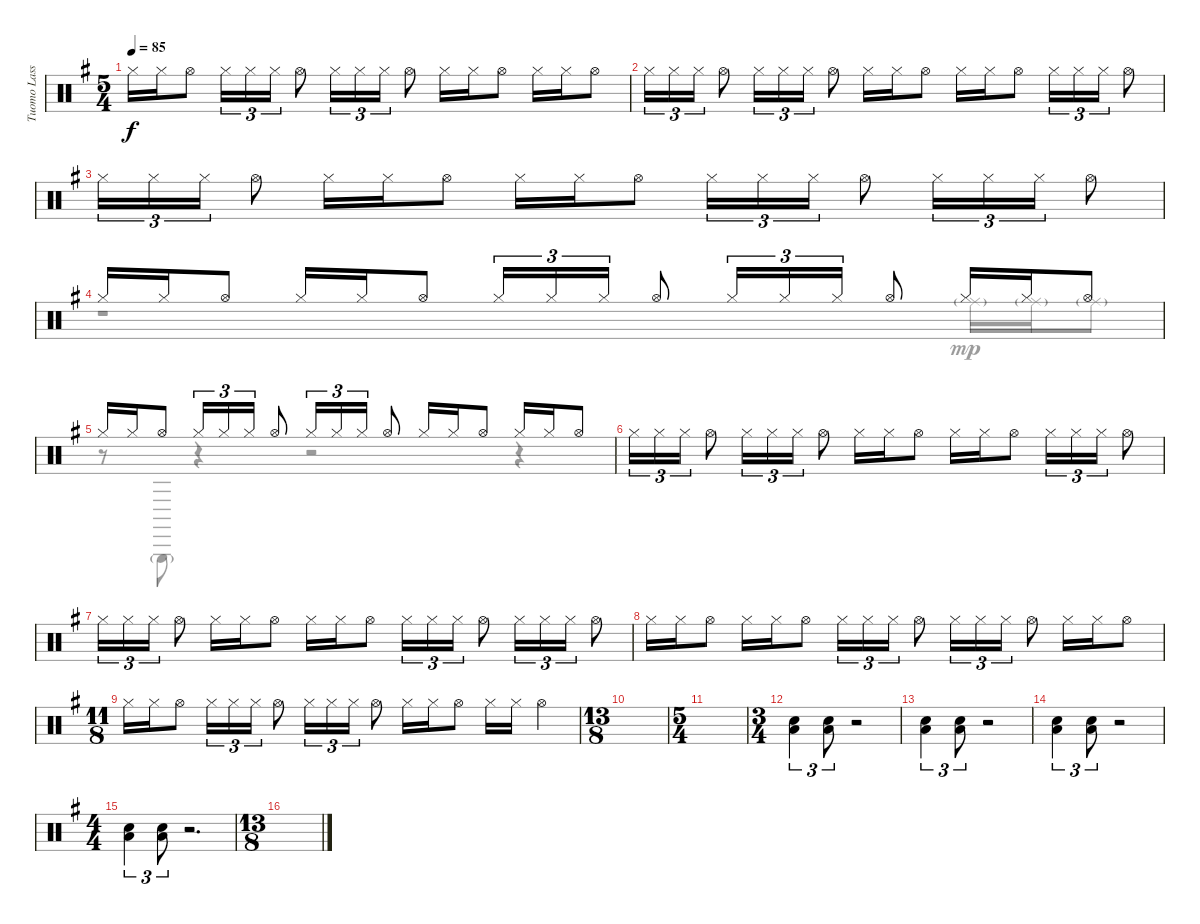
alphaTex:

\track ("Tuomo Lassila" "Tuomo Lass") {instrument percussion}
\staff {score}
\articulation defaults
\voice
\ts (5 4)
\tempo 85
\clef neutral
\ks g "Hi-Hat (closed)".16{dy f} "Hi-Hat (closed)".16 "Hi-Hat (open)".8 "Hi-Hat (closed)".16{tu (3 2)} "Hi-Hat (closed)".16{tu (3 2)} "Hi-Hat (closed)".16{tu (3 2)} "Hi-Hat (open)".8 "Hi-Hat (closed)".16{tu (3 2)} "Hi-Hat (closed)".16{tu (3 2)} "Hi-Hat (closed)".16{tu (3 2)} "Hi-Hat (open)".8 "Hi-Hat (closed)".16 "Hi-Hat (closed)".16 "Hi-Hat (open)".8 "Hi-Hat (closed)".16 "Hi-Hat (closed)".16 "Hi-Hat (open)".8
|
"Hi-Hat (closed)".16{tu (3 2)} "Hi-Hat (closed)".16{tu (3 2)} "Hi-Hat (closed)".16{tu (3 2)} "Hi-Hat (open)".8 "Hi-Hat (closed)".16{tu (3 2)} "Hi-Hat (closed)".16{tu (3 2)} "Hi-Hat (closed)".16{tu (3 2)} "Hi-Hat (open)".8 "Hi-Hat (closed)".16 "Hi-Hat (closed)".16 "Hi-Hat (open)".8 "Hi-Hat (closed)".16 "Hi-Hat (closed)".16 "Hi-Hat (open)".8 "Hi-Hat (closed)".16{tu (3 2)} "Hi-Hat (closed)".16{tu (3 2)} "Hi-Hat (closed)".16{tu (3 2)} "Hi-Hat (open)".8 |
"Hi-Hat (closed)".16{tu (3 2)} "Hi-Hat (closed)".16{tu (3 2)} "Hi-Hat (closed)".16{tu (3 2)} "Hi-Hat (open)".8 "Hi-Hat (closed)".16 "Hi-Hat (closed)".16 "Hi-Hat (open)".8 "Hi-Hat (closed)".16 "Hi-Hat (closed)".16 "Hi-Hat (open)".8 "Hi-Hat (closed)".16{tu (3 2)} "Hi-Hat (closed)".16{tu (3 2)} "Hi-Hat (closed)".16{tu (3 2)} "Hi-Hat (open)".8 "Hi-Hat (closed)".16{tu (3 2)} "Hi-Hat (closed)".16{tu (3 2)} "Hi-Hat (closed)".16{tu (3 2)} "Hi-Hat (open)".8 |
"Hi-Hat (closed)".16 "Hi-Hat (closed)".16 "Hi-Hat (open)".8 "Hi-Hat (closed)".16 "Hi-Hat (closed)".16 "Hi-Hat (open)".8 "Hi-Hat (closed)".16{tu (3 2)} "Hi-Hat (closed)".16{tu (3 2)} "Hi-Hat (closed)".16{tu (3 2)} "Hi-Hat (open)".8 "Hi-Hat (closed)".16{tu (3 2)} "Hi-Hat (closed)".16{tu (3 2)} "Hi-Hat (closed)".16{tu (3 2)} "Hi-Hat (open)".8 "Hi-Hat (closed)".16 "Hi-Hat (closed)".16 "Hi-Hat (open)".8 |
"Hi-Hat (closed)".16 "Hi-Hat (closed)".16 "Hi-Hat (open)".8 "Hi-Hat (closed)".16{tu (3 2)} "Hi-Hat (closed)".16{tu (3 2)} "Hi-Hat (closed)".16{tu (3 2)} "Hi-Hat (open)".8 "Hi-Hat (closed)".16{tu (3 2)} "Hi-Hat (closed)".16{tu (3 2)} "Hi-Hat (closed)".16{tu (3 2)} "Hi-Hat (open)".8 "Hi-Hat (closed)".16 "Hi-Hat (closed)".16 "Hi-Hat (open)".8 "Hi-Hat (closed)".16 "Hi-Hat (closed)".16 "Hi-Hat (open)".8 |
"Hi-Hat (closed)".16{tu (3 2)} "Hi-Hat (closed)".16{tu (3 2)} "Hi-Hat (closed)".16{tu (3 2)} "Hi-Hat (open)".8 "Hi-Hat (closed)".16{tu (3 2)} "Hi-Hat (closed)".16{tu (3 2)} "Hi-Hat (closed)".16{tu (3 2)} "Hi-Hat (open)".8 "Hi-Hat (closed)".16 "Hi-Hat (closed)".16 "Hi-Hat (open)".8 "Hi-Hat (closed)".16 "Hi-Hat (closed)".16 "Hi-Hat (open)".8 "Hi-Hat (closed)".16{tu (3 2)} "Hi-Hat (closed)".16{tu (3 2)} "Hi-Hat (closed)".16{tu (3 2)} "Hi-Hat (open)".8 |
"Hi-Hat (closed)".16{tu (3 2)} "Hi-Hat (closed)".16{tu (3 2)} "Hi-Hat (closed)".16{tu (3 2)} "Hi-Hat (open)".8 "Hi-Hat (closed)".16 "Hi-Hat (closed)".16 "Hi-Hat (open)".8 "Hi-Hat (closed)".16 "Hi-Hat (closed)".16 "Hi-Hat (open)".8 "Hi-Hat (closed)".16{tu (3 2)} "Hi-Hat (closed)".16{tu (3 2)} "Hi-Hat (closed)".16{tu (3 2)} "Hi-Hat (open)".8 "Hi-Hat (closed)".16{tu (3 2)} "Hi-Hat (closed)".16{tu (3 2)} "Hi-Hat (closed)".16{tu (3 2)} "Hi-Hat (open)".8 |
"Hi-Hat (closed)".16 "Hi-Hat (closed)".16 "Hi-Hat (open)".8 "Hi-Hat (closed)".16 "Hi-Hat (closed)".16 "Hi-Hat (open)".8 "Hi-Hat (closed)".16{tu (3 2)} "Hi-Hat (closed)".16{tu (3 2)} "Hi-Hat (closed)".16{tu (3 2)} "Hi-Hat (open)".8 "Hi-Hat (closed)".16{tu (3 2)} "Hi-Hat (closed)".16{tu (3 2)} "Hi-Hat (closed)".16{tu (3 2)} "Hi-Hat (open)".8 "Hi-Hat (closed)".16 "Hi-Hat (closed)".16 "Hi-Hat (open)".8 |
\ts (11 8)
"Hi-Hat (closed)".16 "Hi-Hat (closed)".16 "Hi-Hat (open)".8 "Hi-Hat (closed)".16{tu (3 2)} "Hi-Hat (closed)".16{tu (3 2)} "Hi-Hat (closed)".16{tu (3 2)} "Hi-Hat (open)".8 "Hi-Hat (closed)".16{tu (3 2)} "Hi-Hat (closed)".16{tu (3 2)} "Hi-Hat (closed)".16{tu (3 2)} "Hi-Hat (open)".8 "Hi-Hat (closed)".16 "Hi-Hat (closed)".16 "Hi-Hat (open)".8 "Hi-Hat (closed)".16 "Hi-Hat (closed)".16 "Hi-Hat (open)".4 |
\ts (13 8)
|
\ts (5 4)
|
\ts (3 4)
("Low Tom (hit)" "Electric Snare (hit)").4{tu (3 2)} ("Low Tom (hit)" "Electric Snare (hit)").8{tu (3 2)} r.2 |
("Low Tom (hit)" "Electric Snare (hit)").4{tu (3 2)} ("Low Tom (hit)" "Electric Snare (hit)").8{tu (3 2)} r.2 |
("Low Tom (hit)" "Electric Snare (hit)").4{tu (3 2)} ("Low Tom (hit)" "Electric Snare (hit)").8{tu (3 2)} r.2 |
\ts (4 4)
("Low Tom (hit)" "Electric Snare (hit)").4{tu (3 2)} ("Low Tom (hit)" "Electric Snare (hit)").8{tu (3 2)} r.2{d} |
\ts (13 8)
\voice
\clef neutral
\ottava regular
\simile none
\ks g
|
|
|
r.1 "Ride (middle)"{g}.16{dy mp} "Ride (middle)"{g}.16 "Ride (middle)"{g}.8 |
r.8 "Triangle (hit)"{g}.8 r.4 r.2 r.4 |
|
|
|
|
|
|
|
|
|
|
